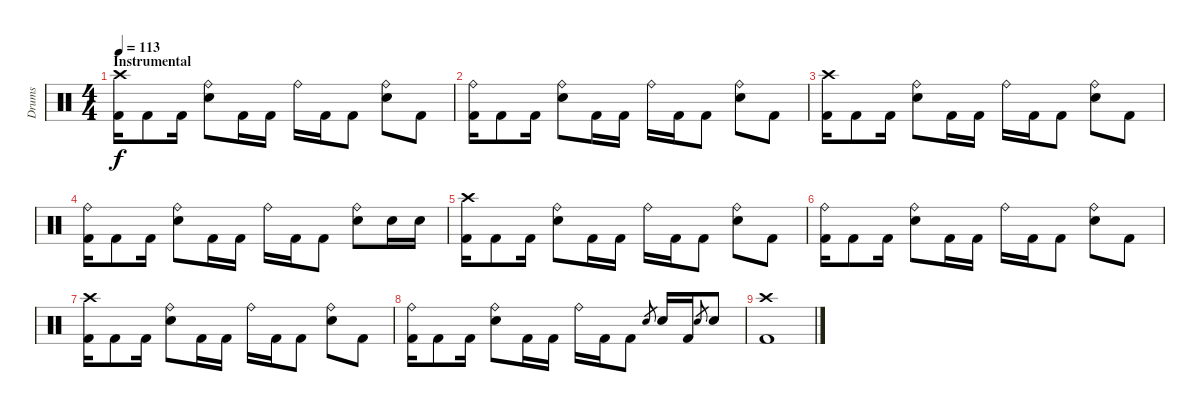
\track ("Drums" "Drums") {instrument percussion}
\staff {score}
\articulation defaults
\ts (4 4)
\section ("" "Instrumental")
\tempo 113
\clef neutral
\ks c
("Crash high (hit)" "Kick (hit) 2").16{dy f} "Kick (hit) 2".8 "Kick (hit) 2".16 ("Ride (bell)" "Snare (hit) 2").8 "Kick (hit) 2".16 "Kick (hit) 2".16 "Ride (bell)".16 "Kick (hit) 2".16 "Kick (hit) 2".8 ("Ride (bell)" "Snare (hit) 2").8 "Kick (hit) 2".8 |
("Ride (bell)" "Kick (hit) 2").16 "Kick (hit) 2".8 "Kick (hit) 2".16 ("Ride (bell)" "Snare (hit) 2").8 "Kick (hit) 2".16 "Kick (hit) 2".16 "Ride (bell)".16 "Kick (hit) 2".16 "Kick (hit) 2".8 ("Ride (bell)" "Snare (hit) 2").8 "Kick (hit) 2".8 |
("Crash high (hit)" "Kick (hit) 2").16 "Kick (hit) 2".8 "Kick (hit) 2".16 ("Ride (bell)" "Snare (hit) 2").8 "Kick (hit) 2".16 "Kick (hit) 2".16 "Ride (bell)".16 "Kick (hit) 2".16 "Kick (hit) 2".8 ("Ride (bell)" "Snare (hit) 2").8 "Kick (hit) 2".8 |
("Ride (bell)" "Kick (hit) 2").16 "Kick (hit) 2".8 "Kick (hit) 2".16 ("Ride (bell)" "Snare (hit) 2").8 "Kick (hit) 2".16 "Kick (hit) 2".16 "Ride (bell)".16 "Kick (hit) 2".16 "Kick (hit) 2".8 ("Ride (bell)" "Snare (hit) 2").8 "Snare (hit) 2".16 "Snare (hit) 2".16 |
("Crash high (hit)" "Kick (hit) 2").16 "Kick (hit) 2".8 "Kick (hit) 2".16 ("Ride (bell)" "Snare (hit) 2").8 "Kick (hit) 2".16 "Kick (hit) 2".16 "Ride (bell)".16 "Kick (hit) 2".16 "Kick (hit) 2".8 ("Ride (bell)" "Snare (hit) 2").8 "Kick (hit) 2".8 |
("Ride (bell)" "Kick (hit) 2").16 "Kick (hit) 2".8 "Kick (hit) 2".16 ("Ride (bell)" "Snare (hit) 2").8 "Kick (hit) 2".16 "Kick (hit) 2".16 "Ride (bell)".16 "Kick (hit) 2".16 "Kick (hit) 2".8 ("Ride (bell)" "Snare (hit) 2").8 "Kick (hit) 2".8 |
("Crash high (hit)" "Kick (hit) 2").16 "Kick (hit) 2".8 "Kick (hit) 2".16 ("Ride (bell)" "Snare (hit) 2").8 "Kick (hit) 2".16 "Kick (hit) 2".16 "Ride (bell)".16 "Kick (hit) 2".16 "Kick (hit) 2".8 ("Ride (bell)" "Snare (hit) 2").8 "Kick (hit) 2".8 |
("Ride (bell)" "Kick (hit) 2").16 "Kick (hit) 2".8 "Kick (hit) 2".16 ("Ride (bell)" "Snare (hit) 2").8 "Kick (hit) 2".16 "Kick (hit) 2".16 "Ride (bell)".16 "Kick (hit) 2".16 "Kick (hit) 2".8 "Snare (hit) 2".8{gr} "Snare (hit) 2".16 "Kick (hit) 2".16 "Snare (hit) 2".8{gr} "Snare (hit) 2".8 |
("Crash high (hit)" "Kick (hit) 2").1
